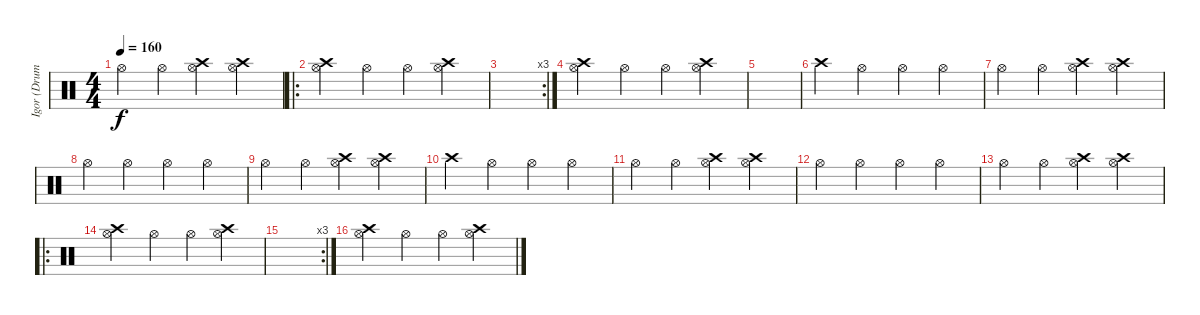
\track ("Igor (Drum - Char & Cymb)" "Igor (Drum") {instrument percussion}
\staff {score}
\articulation defaults
\ts (4 4)
\tempo 160
\clef neutral
\ks c "Hi-Hat (open)".4{dy f} "Hi-Hat (open)".4
("Crash high (hit)" "Hi-Hat (open)").4 ("Crash high (hit)" "Hi-Hat (open)").4 |
\ro
("Crash high (hit)" "Hi-Hat (open)").4 "Hi-Hat (open)".4 "Hi-Hat (open)".4 ("Crash high (hit)" "Hi-Hat (open)").4 |
\rc 3
|
("Crash high (hit)" "Hi-Hat (open)").4 "Hi-Hat (open)".4 "Hi-Hat (open)".4 ("Crash high (hit)" "Hi-Hat (open)").4 |
|
"Crash high (hit)".4 "Hi-Hat (open)".4 "Hi-Hat (open)".4 "Hi-Hat (open)".4 |
"Hi-Hat (open)".4 "Hi-Hat (open)".4 ("Crash high (hit)" "Hi-Hat (open)").4 ("Crash high (hit)" "Hi-Hat (open)").4 |
"Hi-Hat (open)".4 "Hi-Hat (open)".4 "Hi-Hat (open)".4 "Hi-Hat (open)".4 |
"Hi-Hat (open)".4 "Hi-Hat (open)".4 ("Crash high (hit)" "Hi-Hat (open)").4 ("Crash high (hit)" "Hi-Hat (open)").4 |
"Crash high (hit)".4 "Hi-Hat (open)".4 "Hi-Hat (open)".4 "Hi-Hat (open)".4 |
"Hi-Hat (open)".4 "Hi-Hat (open)".4 ("Crash high (hit)" "Hi-Hat (open)").4 ("Crash high (hit)" "Hi-Hat (open)").4 |
"Hi-Hat (open)".4 "Hi-Hat (open)".4 "Hi-Hat (open)".4 "Hi-Hat (open)".4 |
"Hi-Hat (open)".4 "Hi-Hat (open)".4 ("Crash high (hit)" "Hi-Hat (open)").4 ("Crash high (hit)" "Hi-Hat (open)").4 |
\ro
("Crash high (hit)" "Hi-Hat (open)").4 "Hi-Hat (open)".4 "Hi-Hat (open)".4 ("Crash high (hit)" "Hi-Hat (open)").4 |
\rc 3
|
("Crash high (hit)" "Hi-Hat (open)").4 "Hi-Hat (open)".4 "Hi-Hat (open)".4 ("Crash high (hit)" "Hi-Hat (open)").4
